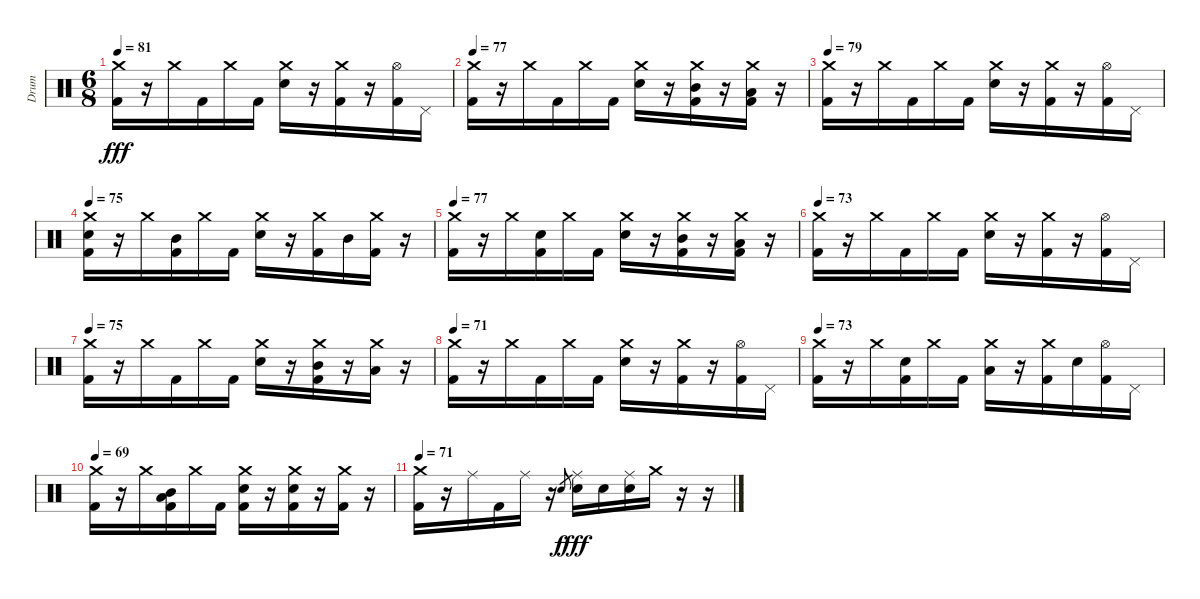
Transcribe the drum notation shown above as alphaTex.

\track ("Drum" "Drum") {instrument percussion}
\staff {score}
\articulation defaults
\ts (6 8)
\tempo 81
\clef neutral
\ks c
("Crash medium (hit)" "Kick (hit) 2").16{dy fff} r.16 "Crash medium (hit)".16 "Kick (hit) 2".16 "Crash medium (hit)".16 "Kick (hit) 2".16 ("Crash medium (hit)" "Electric Snare (hit)").16 r.16 ("Crash medium (hit)" "Kick (hit) 2").16 r.16 ("Hi-Hat (open)" "Kick (hit) 2").16 "Pedal Hi-Hat (hit)".16 |
\tempo 77
("Crash medium (hit)" "Kick (hit) 2").16 r.16 "Crash medium (hit)".16 "Kick (hit) 2".16 "Crash medium (hit)".16 "Kick (hit) 2".16 ("Crash medium (hit)" "Electric Snare (hit)").16 r.16 ("Crash medium (hit)" "Mid Tom (hit)" "Kick (hit) 2").16 r.16 ("Crash medium (hit)" "Low Tom (hit)" "Kick (hit) 2").16 r.16 |
\tempo 79
("Crash medium (hit)" "Kick (hit) 2").16 r.16 "Crash medium (hit)".16 "Kick (hit) 2".16 "Crash medium (hit)".16 "Kick (hit) 2".16 ("Crash medium (hit)" "Electric Snare (hit)").16 r.16 ("Crash medium (hit)" "Kick (hit) 2").16 r.16 ("Hi-Hat (open)" "Kick (hit) 2").16 "Pedal Hi-Hat (hit)".16 |
\tempo 75
("Crash medium (hit)" "Electric Snare (hit)" "Kick (hit) 2").16 r.16 "Crash medium (hit)".16 ("Mid Tom (hit)" "Kick (hit) 2").16 "Crash medium (hit)".16 "Kick (hit) 2".16 ("Crash medium (hit)" "Electric Snare (hit)").16 r.16 ("Crash medium (hit)" "Kick (hit) 2").16 "Mid Tom (hit)".16 ("Crash medium (hit)" "Kick (hit) 2").16 r.16 |
\tempo 77
("Crash medium (hit)" "Kick (hit) 2").16 r.16 "Crash medium (hit)".16 ("Electric Snare (hit)" "Kick (hit) 2").16 "Crash medium (hit)".16 "Kick (hit) 2".16 ("Crash medium (hit)" "Electric Snare (hit)").16 r.16 ("Crash medium (hit)" "Mid Tom (hit)" "Kick (hit) 2").16 r.16 ("Crash medium (hit)" "Low Tom (hit)" "Kick (hit) 2").16 r.16 |
\tempo 73
("Crash medium (hit)" "Kick (hit) 2").16 r.16 "Crash medium (hit)".16 "Kick (hit) 2".16 "Crash medium (hit)".16 "Kick (hit) 2".16 ("Crash medium (hit)" "Electric Snare (hit)").16 r.16 ("Crash medium (hit)" "Kick (hit) 2").16 r.16 ("Hi-Hat (open)" "Kick (hit) 2").16 "Pedal Hi-Hat (hit)".16 |
\tempo 75
("Crash medium (hit)" "Kick (hit) 2").16 r.16 "Crash medium (hit)".16 "Kick (hit) 2".16 "Crash medium (hit)".16 "Kick (hit) 2".16 ("Crash medium (hit)" "Electric Snare (hit)").16 r.16 ("Crash medium (hit)" "Mid Tom (hit)" "Kick (hit) 2").16 r.16 ("Crash medium (hit)" "Low Tom (hit)").16 r.16 |
\tempo 71
("Crash medium (hit)" "Kick (hit) 2").16 r.16 "Crash medium (hit)".16 "Kick (hit) 2".16 "Crash medium (hit)".16 "Kick (hit) 2".16 ("Crash medium (hit)" "Electric Snare (hit)").16 r.16 ("Crash medium (hit)" "Kick (hit) 2").16 r.16 ("Hi-Hat (open)" "Kick (hit) 2").16 "Pedal Hi-Hat (hit)".16 |
\tempo 73
("Crash medium (hit)" "Kick (hit) 2").16 r.16 "Crash medium (hit)".16 ("Electric Snare (hit)" "Kick (hit) 2").16 "Crash medium (hit)".16 "Kick (hit) 2".16 ("Crash medium (hit)" "Low Tom (hit)").16 r.16 ("Crash medium (hit)" "Kick (hit) 2").16 "Electric Snare (hit)".16 ("Hi-Hat (open)" "Kick (hit) 2").16 "Pedal Hi-Hat (hit)".16 |
\tempo 69
("Crash medium (hit)" "Kick (hit) 2").16 r.16 "Crash medium (hit)".16 ("Mid Tom (hit)" "Low Tom (hit)" "Kick (hit) 2").16 "Crash medium (hit)".16 "Kick (hit) 2".16 ("Crash medium (hit)" "Electric Snare (hit)" "Kick (hit) 2").16 r.16 ("Crash medium (hit)" "Electric Snare (hit)" "Kick (hit) 2").16 r.16 ("Crash medium (hit)" "Kick (hit) 2").16 r.16 |
\tempo 100
\tempo 71
("Crash medium (hit)" "Kick (hit) 2").16 r.16 "Ride (middle)".16 "Kick (hit) 2".16 "Ride (middle)".16 r.16 "Electric Snare (hit)".8{gr dy f} ("Ride (middle)" "Electric Snare (hit)").16{dy fff} "Electric Snare (hit)".16 ("Ride (middle)" "Electric Snare (hit)").16 "Crash medium (hit)".16 r.16 r.16
